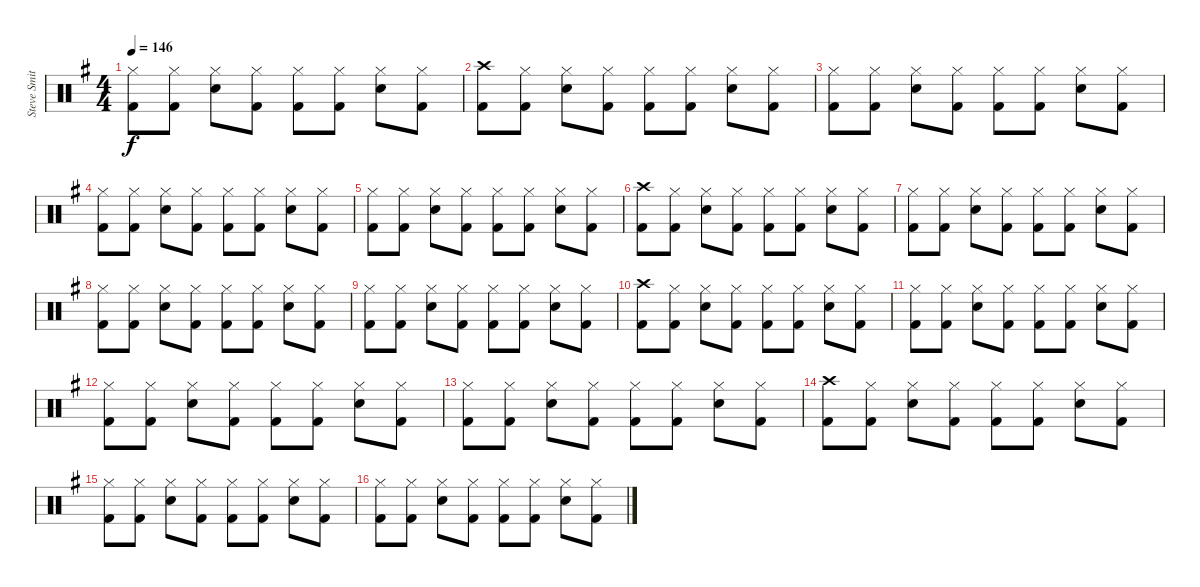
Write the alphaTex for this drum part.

\track ("Steve Smith" "Steve Smit") {instrument percussion}
\staff {score}
\articulation defaults
\ts (4 4)
\tempo 146
\clef neutral
\ks g
("Hi-Hat (closed)" "Kick (hit) 2").8{dy f} ("Hi-Hat (closed)" "Kick (hit) 2").8 ("Hi-Hat (closed)" "Snare (hit) 2").8 ("Hi-Hat (closed)" "Kick (hit) 2").8 ("Hi-Hat (closed)" "Kick (hit) 2").8 ("Hi-Hat (closed)" "Kick (hit) 2").8 ("Hi-Hat (closed)" "Snare (hit) 2").8 ("Hi-Hat (closed)" "Kick (hit) 2").8 |
("Crash high (hit)" "Kick (hit) 2").8 ("Hi-Hat (closed)" "Kick (hit) 2").8 ("Hi-Hat (closed)" "Snare (hit) 2").8 ("Hi-Hat (closed)" "Kick (hit) 2").8 ("Hi-Hat (closed)" "Kick (hit) 2").8 ("Hi-Hat (closed)" "Kick (hit) 2").8 ("Hi-Hat (closed)" "Snare (hit) 2").8 ("Hi-Hat (closed)" "Kick (hit) 2").8 |
("Hi-Hat (closed)" "Kick (hit) 2").8 ("Hi-Hat (closed)" "Kick (hit) 2").8 ("Hi-Hat (closed)" "Snare (hit) 2").8 ("Hi-Hat (closed)" "Kick (hit) 2").8 ("Hi-Hat (closed)" "Kick (hit) 2").8 ("Hi-Hat (closed)" "Kick (hit) 2").8 ("Hi-Hat (closed)" "Snare (hit) 2").8 ("Hi-Hat (closed)" "Kick (hit) 2").8 |
("Hi-Hat (closed)" "Kick (hit) 2").8 ("Hi-Hat (closed)" "Kick (hit) 2").8 ("Hi-Hat (closed)" "Snare (hit) 2").8 ("Hi-Hat (closed)" "Kick (hit) 2").8 ("Hi-Hat (closed)" "Kick (hit) 2").8 ("Hi-Hat (closed)" "Kick (hit) 2").8 ("Hi-Hat (closed)" "Snare (hit) 2").8 ("Hi-Hat (closed)" "Kick (hit) 2").8 |
("Hi-Hat (closed)" "Kick (hit) 2").8 ("Hi-Hat (closed)" "Kick (hit) 2").8 ("Hi-Hat (closed)" "Snare (hit) 2").8 ("Hi-Hat (closed)" "Kick (hit) 2").8 ("Hi-Hat (closed)" "Kick (hit) 2").8 ("Hi-Hat (closed)" "Kick (hit) 2").8 ("Hi-Hat (closed)" "Snare (hit) 2").8 ("Hi-Hat (closed)" "Kick (hit) 2").8 |
("Crash high (hit)" "Kick (hit) 2").8 ("Hi-Hat (closed)" "Kick (hit) 2").8 ("Hi-Hat (closed)" "Snare (hit) 2").8 ("Hi-Hat (closed)" "Kick (hit) 2").8 ("Hi-Hat (closed)" "Kick (hit) 2").8 ("Hi-Hat (closed)" "Kick (hit) 2").8 ("Hi-Hat (closed)" "Snare (hit) 2").8 ("Hi-Hat (closed)" "Kick (hit) 2").8 |
("Hi-Hat (closed)" "Kick (hit) 2").8 ("Hi-Hat (closed)" "Kick (hit) 2").8 ("Hi-Hat (closed)" "Snare (hit) 2").8 ("Hi-Hat (closed)" "Kick (hit) 2").8 ("Hi-Hat (closed)" "Kick (hit) 2").8 ("Hi-Hat (closed)" "Kick (hit) 2").8 ("Hi-Hat (closed)" "Snare (hit) 2").8 ("Hi-Hat (closed)" "Kick (hit) 2").8 |
("Hi-Hat (closed)" "Kick (hit) 2").8 ("Hi-Hat (closed)" "Kick (hit) 2").8 ("Hi-Hat (closed)" "Snare (hit) 2").8 ("Hi-Hat (closed)" "Kick (hit) 2").8 ("Hi-Hat (closed)" "Kick (hit) 2").8 ("Hi-Hat (closed)" "Kick (hit) 2").8 ("Hi-Hat (closed)" "Snare (hit) 2").8 ("Hi-Hat (closed)" "Kick (hit) 2").8 |
("Hi-Hat (closed)" "Kick (hit) 2").8 ("Hi-Hat (closed)" "Kick (hit) 2").8 ("Hi-Hat (closed)" "Snare (hit) 2").8 ("Hi-Hat (closed)" "Kick (hit) 2").8 ("Hi-Hat (closed)" "Kick (hit) 2").8 ("Hi-Hat (closed)" "Kick (hit) 2").8 ("Hi-Hat (closed)" "Snare (hit) 2").8 ("Hi-Hat (closed)" "Kick (hit) 2").8 |
("Crash high (hit)" "Kick (hit) 2").8 ("Hi-Hat (closed)" "Kick (hit) 2").8 ("Hi-Hat (closed)" "Snare (hit) 2").8 ("Hi-Hat (closed)" "Kick (hit) 2").8 ("Hi-Hat (closed)" "Kick (hit) 2").8 ("Hi-Hat (closed)" "Kick (hit) 2").8 ("Hi-Hat (closed)" "Snare (hit) 2").8 ("Hi-Hat (closed)" "Kick (hit) 2").8 |
("Hi-Hat (closed)" "Kick (hit) 2").8 ("Hi-Hat (closed)" "Kick (hit) 2").8 ("Hi-Hat (closed)" "Snare (hit) 2").8 ("Hi-Hat (closed)" "Kick (hit) 2").8 ("Hi-Hat (closed)" "Kick (hit) 2").8 ("Hi-Hat (closed)" "Kick (hit) 2").8 ("Hi-Hat (closed)" "Snare (hit) 2").8 ("Hi-Hat (closed)" "Kick (hit) 2").8 |
("Hi-Hat (closed)" "Kick (hit) 2").8 ("Hi-Hat (closed)" "Kick (hit) 2").8 ("Hi-Hat (closed)" "Snare (hit) 2").8 ("Hi-Hat (closed)" "Kick (hit) 2").8 ("Hi-Hat (closed)" "Kick (hit) 2").8 ("Hi-Hat (closed)" "Kick (hit) 2").8 ("Hi-Hat (closed)" "Snare (hit) 2").8 ("Hi-Hat (closed)" "Kick (hit) 2").8 |
("Hi-Hat (closed)" "Kick (hit) 2").8 ("Hi-Hat (closed)" "Kick (hit) 2").8 ("Hi-Hat (closed)" "Snare (hit) 2").8 ("Hi-Hat (closed)" "Kick (hit) 2").8 ("Hi-Hat (closed)" "Kick (hit) 2").8 ("Hi-Hat (closed)" "Kick (hit) 2").8 ("Hi-Hat (closed)" "Snare (hit) 2").8 ("Hi-Hat (closed)" "Kick (hit) 2").8 |
("Crash high (hit)" "Kick (hit) 2").8 ("Hi-Hat (closed)" "Kick (hit) 2").8 ("Hi-Hat (closed)" "Snare (hit) 2").8 ("Hi-Hat (closed)" "Kick (hit) 2").8 ("Hi-Hat (closed)" "Kick (hit) 2").8 ("Hi-Hat (closed)" "Kick (hit) 2").8 ("Hi-Hat (closed)" "Snare (hit) 2").8 ("Hi-Hat (closed)" "Kick (hit) 2").8 |
("Hi-Hat (closed)" "Kick (hit) 2").8 ("Hi-Hat (closed)" "Kick (hit) 2").8 ("Hi-Hat (closed)" "Snare (hit) 2").8 ("Hi-Hat (closed)" "Kick (hit) 2").8 ("Hi-Hat (closed)" "Kick (hit) 2").8 ("Hi-Hat (closed)" "Kick (hit) 2").8 ("Hi-Hat (closed)" "Snare (hit) 2").8 ("Hi-Hat (closed)" "Kick (hit) 2").8 |
("Hi-Hat (closed)" "Kick (hit) 2").8 ("Hi-Hat (closed)" "Kick (hit) 2").8 ("Hi-Hat (closed)" "Snare (hit) 2").8 ("Hi-Hat (closed)" "Kick (hit) 2").8 ("Hi-Hat (closed)" "Kick (hit) 2").8 ("Hi-Hat (closed)" "Kick (hit) 2").8 ("Hi-Hat (closed)" "Snare (hit) 2").8 ("Hi-Hat (closed)" "Kick (hit) 2").8
